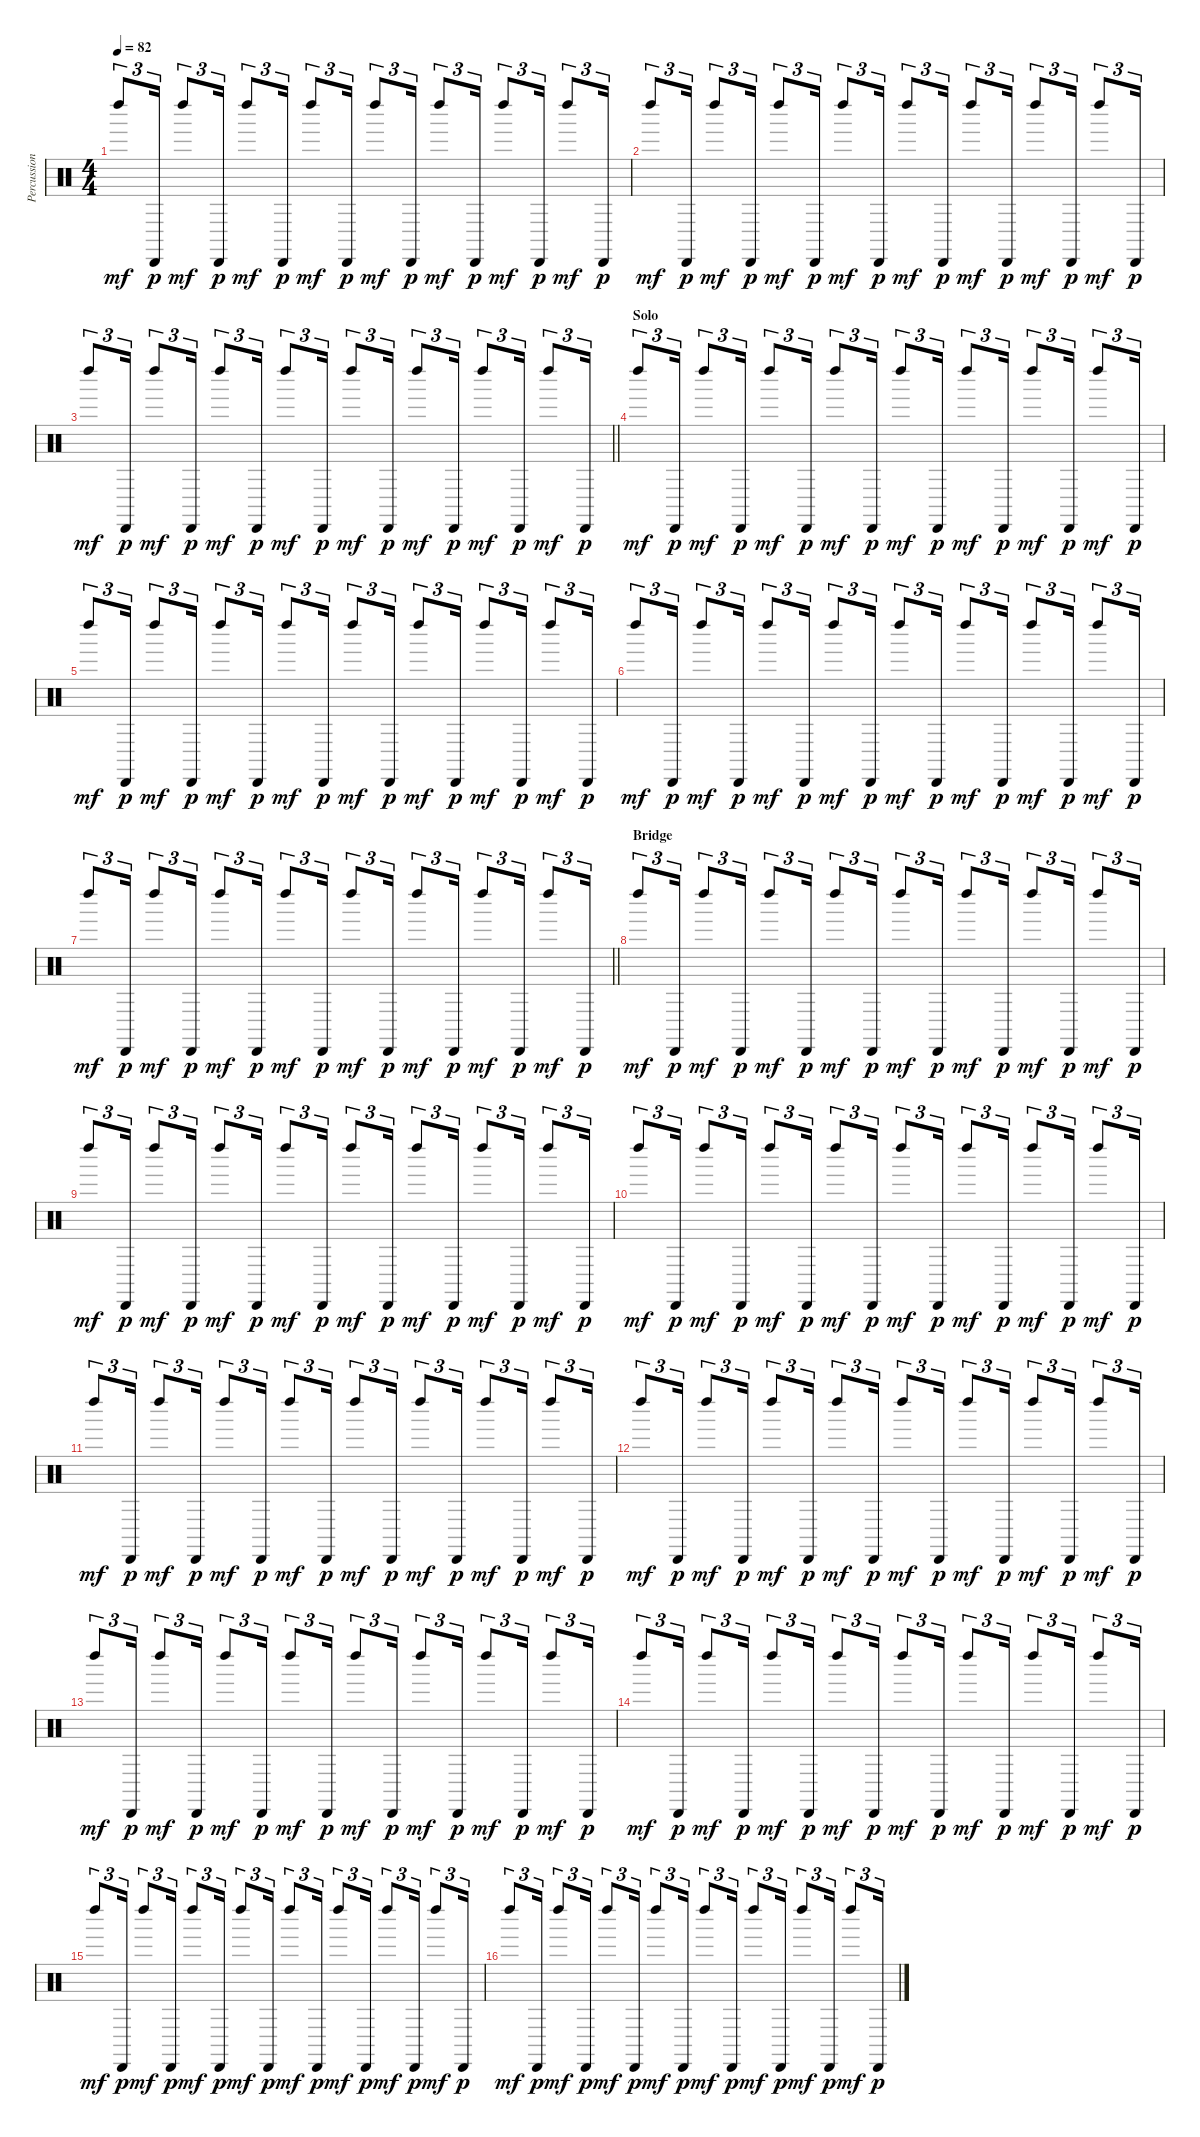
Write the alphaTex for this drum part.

\track ("Percussion" "Percussion") {instrument percussion}
\staff {score}
\articulation defaults
\ts (4 4)
\tempo 82
\clef neutral
\ks c "Left Maraca (hit)".8{tu (3 2) dy mf} "Cabasa (hit)".16{tu (3 2) dy p} "Left Maraca (hit)".8{tu (3 2) dy mf} "Cabasa (hit)".16{tu (3 2) dy p} "Left Maraca (hit)".8{tu (3 2) dy mf} "Cabasa (hit)".16{tu (3 2) dy p} "Left Maraca (hit)".8{tu (3 2) dy mf} "Cabasa (hit)".16{tu (3 2) dy p} "Left Maraca (hit)".8{tu (3 2) dy mf} "Cabasa (hit)".16{tu (3 2) dy p} "Left Maraca (hit)".8{tu (3 2) dy mf} "Cabasa (hit)".16{tu (3 2) dy p} "Left Maraca (hit)".8{tu (3 2) dy mf} "Cabasa (hit)".16{tu (3 2) dy p} "Left Maraca (hit)".8{tu (3 2) dy mf} "Cabasa (hit)".16{tu (3 2) dy p}
|
"Left Maraca (hit)".8{tu (3 2) dy mf} "Cabasa (hit)".16{tu (3 2) dy p} "Left Maraca (hit)".8{tu (3 2) dy mf} "Cabasa (hit)".16{tu (3 2) dy p} "Left Maraca (hit)".8{tu (3 2) dy mf} "Cabasa (hit)".16{tu (3 2) dy p} "Left Maraca (hit)".8{tu (3 2) dy mf} "Cabasa (hit)".16{tu (3 2) dy p} "Left Maraca (hit)".8{tu (3 2) dy mf} "Cabasa (hit)".16{tu (3 2) dy p} "Left Maraca (hit)".8{tu (3 2) dy mf} "Cabasa (hit)".16{tu (3 2) dy p} "Left Maraca (hit)".8{tu (3 2) dy mf} "Cabasa (hit)".16{tu (3 2) dy p} "Left Maraca (hit)".8{tu (3 2) dy mf} "Cabasa (hit)".16{tu (3 2) dy p} |
\barLineRight lightlight "Left Maraca (hit)".8{tu (3 2) dy mf} "Cabasa (hit)".16{tu (3 2) dy p} "Left Maraca (hit)".8{tu (3 2) dy mf} "Cabasa (hit)".16{tu (3 2) dy p} "Left Maraca (hit)".8{tu (3 2) dy mf} "Cabasa (hit)".16{tu (3 2) dy p} "Left Maraca (hit)".8{tu (3 2) dy mf} "Cabasa (hit)".16{tu (3 2) dy p} "Left Maraca (hit)".8{tu (3 2) dy mf} "Cabasa (hit)".16{tu (3 2) dy p} "Left Maraca (hit)".8{tu (3 2) dy mf} "Cabasa (hit)".16{tu (3 2) dy p} "Left Maraca (hit)".8{tu (3 2) dy mf} "Cabasa (hit)".16{tu (3 2) dy p} "Left Maraca (hit)".8{tu (3 2) dy mf} "Cabasa (hit)".16{tu (3 2) dy p}
|
\section ("" "Solo")
"Left Maraca (hit)".8{tu (3 2) dy mf} "Cabasa (hit)".16{tu (3 2) dy p} "Left Maraca (hit)".8{tu (3 2) dy mf} "Cabasa (hit)".16{tu (3 2) dy p} "Left Maraca (hit)".8{tu (3 2) dy mf} "Cabasa (hit)".16{tu (3 2) dy p} "Left Maraca (hit)".8{tu (3 2) dy mf} "Cabasa (hit)".16{tu (3 2) dy p} "Left Maraca (hit)".8{tu (3 2) dy mf} "Cabasa (hit)".16{tu (3 2) dy p} "Left Maraca (hit)".8{tu (3 2) dy mf} "Cabasa (hit)".16{tu (3 2) dy p} "Left Maraca (hit)".8{tu (3 2) dy mf} "Cabasa (hit)".16{tu (3 2) dy p} "Left Maraca (hit)".8{tu (3 2) dy mf} "Cabasa (hit)".16{tu (3 2) dy p} |
"Left Maraca (hit)".8{tu (3 2) dy mf} "Cabasa (hit)".16{tu (3 2) dy p} "Left Maraca (hit)".8{tu (3 2) dy mf} "Cabasa (hit)".16{tu (3 2) dy p} "Left Maraca (hit)".8{tu (3 2) dy mf} "Cabasa (hit)".16{tu (3 2) dy p} "Left Maraca (hit)".8{tu (3 2) dy mf} "Cabasa (hit)".16{tu (3 2) dy p} "Left Maraca (hit)".8{tu (3 2) dy mf} "Cabasa (hit)".16{tu (3 2) dy p} "Left Maraca (hit)".8{tu (3 2) dy mf} "Cabasa (hit)".16{tu (3 2) dy p} "Left Maraca (hit)".8{tu (3 2) dy mf} "Cabasa (hit)".16{tu (3 2) dy p} "Left Maraca (hit)".8{tu (3 2) dy mf} "Cabasa (hit)".16{tu (3 2) dy p} |
"Left Maraca (hit)".8{tu (3 2) dy mf} "Cabasa (hit)".16{tu (3 2) dy p} "Left Maraca (hit)".8{tu (3 2) dy mf} "Cabasa (hit)".16{tu (3 2) dy p} "Left Maraca (hit)".8{tu (3 2) dy mf} "Cabasa (hit)".16{tu (3 2) dy p} "Left Maraca (hit)".8{tu (3 2) dy mf} "Cabasa (hit)".16{tu (3 2) dy p} "Left Maraca (hit)".8{tu (3 2) dy mf} "Cabasa (hit)".16{tu (3 2) dy p} "Left Maraca (hit)".8{tu (3 2) dy mf} "Cabasa (hit)".16{tu (3 2) dy p} "Left Maraca (hit)".8{tu (3 2) dy mf} "Cabasa (hit)".16{tu (3 2) dy p} "Left Maraca (hit)".8{tu (3 2) dy mf} "Cabasa (hit)".16{tu (3 2) dy p} |
\barLineRight lightlight "Left Maraca (hit)".8{tu (3 2) dy mf} "Cabasa (hit)".16{tu (3 2) dy p} "Left Maraca (hit)".8{tu (3 2) dy mf} "Cabasa (hit)".16{tu (3 2) dy p} "Left Maraca (hit)".8{tu (3 2) dy mf} "Cabasa (hit)".16{tu (3 2) dy p} "Left Maraca (hit)".8{tu (3 2) dy mf} "Cabasa (hit)".16{tu (3 2) dy p} "Left Maraca (hit)".8{tu (3 2) dy mf} "Cabasa (hit)".16{tu (3 2) dy p} "Left Maraca (hit)".8{tu (3 2) dy mf} "Cabasa (hit)".16{tu (3 2) dy p} "Left Maraca (hit)".8{tu (3 2) dy mf} "Cabasa (hit)".16{tu (3 2) dy p} "Left Maraca (hit)".8{tu (3 2) dy mf} "Cabasa (hit)".16{tu (3 2) dy p}
|
\section ("" "Bridge")
"Left Maraca (hit)".8{tu (3 2) dy mf} "Cabasa (hit)".16{tu (3 2) dy p} "Left Maraca (hit)".8{tu (3 2) dy mf} "Cabasa (hit)".16{tu (3 2) dy p} "Left Maraca (hit)".8{tu (3 2) dy mf} "Cabasa (hit)".16{tu (3 2) dy p} "Left Maraca (hit)".8{tu (3 2) dy mf} "Cabasa (hit)".16{tu (3 2) dy p} "Left Maraca (hit)".8{tu (3 2) dy mf} "Cabasa (hit)".16{tu (3 2) dy p} "Left Maraca (hit)".8{tu (3 2) dy mf} "Cabasa (hit)".16{tu (3 2) dy p} "Left Maraca (hit)".8{tu (3 2) dy mf} "Cabasa (hit)".16{tu (3 2) dy p} "Left Maraca (hit)".8{tu (3 2) dy mf} "Cabasa (hit)".16{tu (3 2) dy p} |
"Left Maraca (hit)".8{tu (3 2) dy mf} "Cabasa (hit)".16{tu (3 2) dy p} "Left Maraca (hit)".8{tu (3 2) dy mf} "Cabasa (hit)".16{tu (3 2) dy p} "Left Maraca (hit)".8{tu (3 2) dy mf} "Cabasa (hit)".16{tu (3 2) dy p} "Left Maraca (hit)".8{tu (3 2) dy mf} "Cabasa (hit)".16{tu (3 2) dy p} "Left Maraca (hit)".8{tu (3 2) dy mf} "Cabasa (hit)".16{tu (3 2) dy p} "Left Maraca (hit)".8{tu (3 2) dy mf} "Cabasa (hit)".16{tu (3 2) dy p} "Left Maraca (hit)".8{tu (3 2) dy mf} "Cabasa (hit)".16{tu (3 2) dy p} "Left Maraca (hit)".8{tu (3 2) dy mf} "Cabasa (hit)".16{tu (3 2) dy p} |
"Left Maraca (hit)".8{tu (3 2) dy mf} "Cabasa (hit)".16{tu (3 2) dy p} "Left Maraca (hit)".8{tu (3 2) dy mf} "Cabasa (hit)".16{tu (3 2) dy p} "Left Maraca (hit)".8{tu (3 2) dy mf} "Cabasa (hit)".16{tu (3 2) dy p} "Left Maraca (hit)".8{tu (3 2) dy mf} "Cabasa (hit)".16{tu (3 2) dy p} "Left Maraca (hit)".8{tu (3 2) dy mf} "Cabasa (hit)".16{tu (3 2) dy p} "Left Maraca (hit)".8{tu (3 2) dy mf} "Cabasa (hit)".16{tu (3 2) dy p} "Left Maraca (hit)".8{tu (3 2) dy mf} "Cabasa (hit)".16{tu (3 2) dy p} "Left Maraca (hit)".8{tu (3 2) dy mf} "Cabasa (hit)".16{tu (3 2) dy p} |
"Left Maraca (hit)".8{tu (3 2) dy mf} "Cabasa (hit)".16{tu (3 2) dy p} "Left Maraca (hit)".8{tu (3 2) dy mf} "Cabasa (hit)".16{tu (3 2) dy p} "Left Maraca (hit)".8{tu (3 2) dy mf} "Cabasa (hit)".16{tu (3 2) dy p} "Left Maraca (hit)".8{tu (3 2) dy mf} "Cabasa (hit)".16{tu (3 2) dy p} "Left Maraca (hit)".8{tu (3 2) dy mf} "Cabasa (hit)".16{tu (3 2) dy p} "Left Maraca (hit)".8{tu (3 2) dy mf} "Cabasa (hit)".16{tu (3 2) dy p} "Left Maraca (hit)".8{tu (3 2) dy mf} "Cabasa (hit)".16{tu (3 2) dy p} "Left Maraca (hit)".8{tu (3 2) dy mf} "Cabasa (hit)".16{tu (3 2) dy p} |
"Left Maraca (hit)".8{tu (3 2) dy mf} "Cabasa (hit)".16{tu (3 2) dy p} "Left Maraca (hit)".8{tu (3 2) dy mf} "Cabasa (hit)".16{tu (3 2) dy p} "Left Maraca (hit)".8{tu (3 2) dy mf} "Cabasa (hit)".16{tu (3 2) dy p} "Left Maraca (hit)".8{tu (3 2) dy mf} "Cabasa (hit)".16{tu (3 2) dy p} "Left Maraca (hit)".8{tu (3 2) dy mf} "Cabasa (hit)".16{tu (3 2) dy p} "Left Maraca (hit)".8{tu (3 2) dy mf} "Cabasa (hit)".16{tu (3 2) dy p} "Left Maraca (hit)".8{tu (3 2) dy mf} "Cabasa (hit)".16{tu (3 2) dy p} "Left Maraca (hit)".8{tu (3 2) dy mf} "Cabasa (hit)".16{tu (3 2) dy p} |
"Left Maraca (hit)".8{tu (3 2) dy mf} "Cabasa (hit)".16{tu (3 2) dy p} "Left Maraca (hit)".8{tu (3 2) dy mf} "Cabasa (hit)".16{tu (3 2) dy p} "Left Maraca (hit)".8{tu (3 2) dy mf} "Cabasa (hit)".16{tu (3 2) dy p} "Left Maraca (hit)".8{tu (3 2) dy mf} "Cabasa (hit)".16{tu (3 2) dy p} "Left Maraca (hit)".8{tu (3 2) dy mf} "Cabasa (hit)".16{tu (3 2) dy p} "Left Maraca (hit)".8{tu (3 2) dy mf} "Cabasa (hit)".16{tu (3 2) dy p} "Left Maraca (hit)".8{tu (3 2) dy mf} "Cabasa (hit)".16{tu (3 2) dy p} "Left Maraca (hit)".8{tu (3 2) dy mf} "Cabasa (hit)".16{tu (3 2) dy p} |
"Left Maraca (hit)".8{tu (3 2) dy mf} "Cabasa (hit)".16{tu (3 2) dy p} "Left Maraca (hit)".8{tu (3 2) dy mf} "Cabasa (hit)".16{tu (3 2) dy p} "Left Maraca (hit)".8{tu (3 2) dy mf} "Cabasa (hit)".16{tu (3 2) dy p} "Left Maraca (hit)".8{tu (3 2) dy mf} "Cabasa (hit)".16{tu (3 2) dy p} "Left Maraca (hit)".8{tu (3 2) dy mf} "Cabasa (hit)".16{tu (3 2) dy p} "Left Maraca (hit)".8{tu (3 2) dy mf} "Cabasa (hit)".16{tu (3 2) dy p} "Left Maraca (hit)".8{tu (3 2) dy mf} "Cabasa (hit)".16{tu (3 2) dy p} "Left Maraca (hit)".8{tu (3 2) dy mf} "Cabasa (hit)".16{tu (3 2) dy p} |
"Left Maraca (hit)".8{tu (3 2) dy mf} "Cabasa (hit)".16{tu (3 2) dy p} "Left Maraca (hit)".8{tu (3 2) dy mf} "Cabasa (hit)".16{tu (3 2) dy p} "Left Maraca (hit)".8{tu (3 2) dy mf} "Cabasa (hit)".16{tu (3 2) dy p} "Left Maraca (hit)".8{tu (3 2) dy mf} "Cabasa (hit)".16{tu (3 2) dy p} "Left Maraca (hit)".8{tu (3 2) dy mf} "Cabasa (hit)".16{tu (3 2) dy p} "Left Maraca (hit)".8{tu (3 2) dy mf} "Cabasa (hit)".16{tu (3 2) dy p} "Left Maraca (hit)".8{tu (3 2) dy mf} "Cabasa (hit)".16{tu (3 2) dy p} "Left Maraca (hit)".8{tu (3 2) dy mf} "Cabasa (hit)".16{tu (3 2) dy p} |
"Left Maraca (hit)".8{tu (3 2) dy mf} "Cabasa (hit)".16{tu (3 2) dy p} "Left Maraca (hit)".8{tu (3 2) dy mf} "Cabasa (hit)".16{tu (3 2) dy p} "Left Maraca (hit)".8{tu (3 2) dy mf} "Cabasa (hit)".16{tu (3 2) dy p} "Left Maraca (hit)".8{tu (3 2) dy mf} "Cabasa (hit)".16{tu (3 2) dy p} "Left Maraca (hit)".8{tu (3 2) dy mf} "Cabasa (hit)".16{tu (3 2) dy p} "Left Maraca (hit)".8{tu (3 2) dy mf} "Cabasa (hit)".16{tu (3 2) dy p} "Left Maraca (hit)".8{tu (3 2) dy mf} "Cabasa (hit)".16{tu (3 2) dy p} "Left Maraca (hit)".8{tu (3 2) dy mf} "Cabasa (hit)".16{tu (3 2) dy p}
